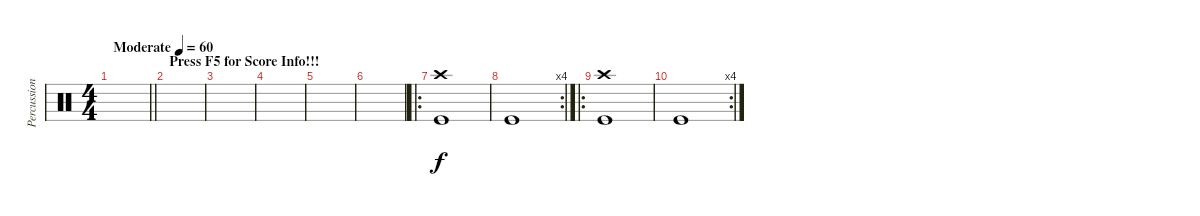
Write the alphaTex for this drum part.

\track ("Percussion" "Percussion") {instrument percussion}
\staff {score}
\articulation defaults
\ts (4 4)
\tempo (60 "Moderate")
\clef neutral
\barLineRight lightlight
\ks c
|
\section ("" "Press F5 for Score Info!!!")
|
|
|
|
|
\ro
("Crash high (hit)" "Kick (hit)").1 |
\rc 4 "Kick (hit)".1
|
\ro
("Crash high (hit)" "Kick (hit)").1 |
\rc 4 "Kick (hit)".1
